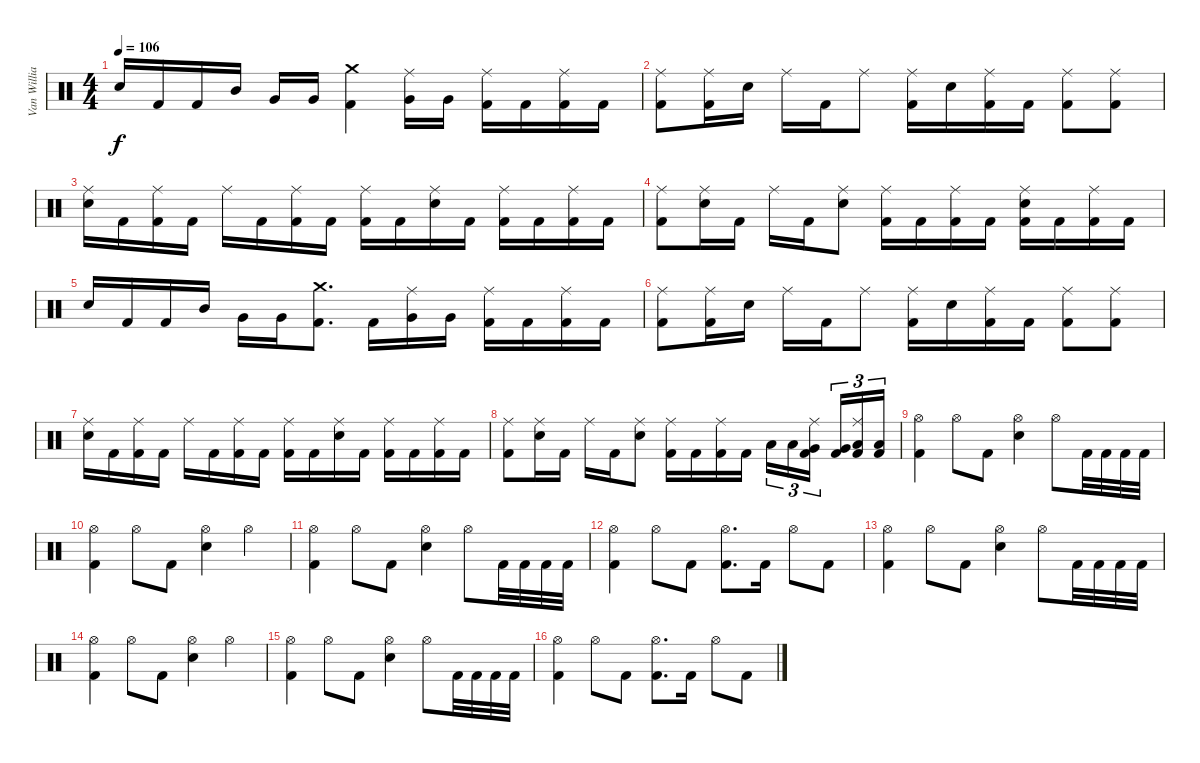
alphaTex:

\track ("Van Williams" "Van Willia") {instrument percussion}
\staff {score}
\articulation defaults
\ts (4 4)
\tempo 106
\clef neutral
\ks c "Electric Snare (hit)".16{dy f} "Kick (hit) 2".16 "Kick (hit) 2".16 "Mid Tom (hit)".16 "Very Low Tom (hit)".16 "Very Low Tom (hit)".16
("Kick (hit) 2" "Crash medium (hit)").4 ("Very Low Tom (hit)" "Ride (middle)").16 "Very Low Tom (hit)".16 ("Kick (hit) 2" "Ride (middle)").16 "Kick (hit) 2".16 ("Kick (hit) 2" "Ride (middle)").16 "Kick (hit) 2".16 |
("Kick (hit) 2" "Ride (middle)").8 ("Kick (hit) 2" "Ride (middle)").16 "Electric Snare (hit)".16 "Ride (middle)".16 "Kick (hit) 2".16 "Ride (middle)".8 ("Kick (hit) 2" "Ride (middle)").16 "Electric Snare (hit)".16 ("Kick (hit) 2" "Ride (middle)").16 "Kick (hit) 2".16 ("Kick (hit) 2" "Ride (middle)").8 ("Kick (hit) 2" "Ride (middle)").8 |
("Electric Snare (hit)" "Ride (middle)").16 "Kick (hit) 2".16 ("Kick (hit) 2" "Ride (middle)").16 "Kick (hit) 2".16 "Ride (middle)".16 "Kick (hit) 2".16 ("Kick (hit) 2" "Ride (middle)").16 "Kick (hit) 2".16 ("Kick (hit) 2" "Ride (middle)").16 "Kick (hit) 2".16 ("Electric Snare (hit)" "Ride (middle)").16 "Kick (hit) 2".16 ("Kick (hit) 2" "Ride (middle)").16 "Kick (hit) 2".16 ("Kick (hit) 2" "Ride (middle)").16 "Kick (hit) 2".16 |
("Kick (hit) 2" "Ride (middle)").8 ("Electric Snare (hit)" "Ride (middle)").16 "Kick (hit) 2".16 "Ride (middle)".16 "Kick (hit) 2".16 ("Electric Snare (hit)" "Ride (middle)").8 ("Kick (hit) 2" "Ride (middle)").16 "Kick (hit) 2".16 ("Kick (hit) 2" "Ride (middle)").16 "Kick (hit) 2".16 ("Kick (hit) 2" "Electric Snare (hit)" "Ride (middle)").16 "Kick (hit) 2".16 ("Kick (hit) 2" "Ride (middle)").16 "Kick (hit) 2".16 |
"Electric Snare (hit)".16 "Kick (hit) 2".16 "Kick (hit) 2".16 "Mid Tom (hit)".16 "Very Low Tom (hit)".16 "Very Low Tom (hit)".16 ("Kick (hit) 2" "Crash medium (hit)").8{d} "Kick (hit) 2".16 ("Very Low Tom (hit)" "Ride (middle)").16 "Very Low Tom (hit)".16 ("Kick (hit) 2" "Ride (middle)").16 "Kick (hit) 2".16 ("Kick (hit) 2" "Ride (middle)").16 "Kick (hit) 2".16 |
("Kick (hit) 2" "Ride (middle)").8 ("Kick (hit) 2" "Ride (middle)").16 "Electric Snare (hit)".16 "Ride (middle)".16 "Kick (hit) 2".16 "Ride (middle)".8 ("Kick (hit) 2" "Ride (middle)").16 "Electric Snare (hit)".16 ("Kick (hit) 2" "Ride (middle)").16 "Kick (hit) 2".16 ("Kick (hit) 2" "Ride (middle)").8 ("Kick (hit) 2" "Ride (middle)").8 |
("Electric Snare (hit)" "Ride (middle)").16 "Kick (hit) 2".16 ("Kick (hit) 2" "Ride (middle)").16 "Kick (hit) 2".16 "Ride (middle)".16 "Kick (hit) 2".16 ("Kick (hit) 2" "Ride (middle)").16 "Kick (hit) 2".16 ("Kick (hit) 2" "Ride (middle)").16 "Kick (hit) 2".16 ("Electric Snare (hit)" "Ride (middle)").16 "Kick (hit) 2".16 ("Kick (hit) 2" "Ride (middle)").16 "Kick (hit) 2".16 ("Kick (hit) 2" "Ride (middle)").16 "Kick (hit) 2".16 |
("Kick (hit) 2" "Ride (middle)").8 ("Electric Snare (hit)" "Ride (middle)").16 "Kick (hit) 2".16 "Ride (middle)".16 "Kick (hit) 2".16 ("Electric Snare (hit)" "Ride (middle)").8 ("Kick (hit) 2" "Ride (middle)").16 "Kick (hit) 2".16 ("Kick (hit) 2" "Ride (middle)").16 "Kick (hit) 2".16 "Low Tom (hit)".16{tu (3 2)} "Low Tom (hit)".16{tu (3 2)} ("Kick (hit) 2" "Very Low Tom (hit)" "Ride (middle)").16{tu (3 2)} ("Kick (hit) 2" "Very Low Tom (hit)").16{tu (3 2)} ("Kick (hit) 2" "Low Floor Tom (hit)" "Ride (middle)").16{tu (3 2)} ("Kick (hit) 2" "Low Floor Tom (hit)").16{tu (3 2)} |
("Hi-Hat (open)" "Kick (hit) 2").4 "Hi-Hat (open)".8 "Kick (hit) 2".8 ("Electric Snare (hit)" "Hi-Hat (open)").4 "Hi-Hat (open)".8 "Kick (hit) 2".32 "Kick (hit) 2".32 "Kick (hit) 2".32 "Kick (hit) 2".32 |
("Kick (hit) 2" "Hi-Hat (open)").4 "Hi-Hat (open)".8 "Kick (hit) 2".8 ("Electric Snare (hit)" "Hi-Hat (open)").4 "Hi-Hat (open)".4 |
("Kick (hit) 2" "Hi-Hat (open)").4 "Hi-Hat (open)".8 "Kick (hit) 2".8 ("Electric Snare (hit)" "Hi-Hat (open)").4 "Hi-Hat (open)".8 "Kick (hit) 2".32 "Kick (hit) 2".32 "Kick (hit) 2".32 "Kick (hit) 2".32 |
("Kick (hit) 2" "Hi-Hat (open)").4 "Hi-Hat (open)".8 "Kick (hit) 2".8 ("Kick (hit) 2" "Hi-Hat (open)").8{d} "Kick (hit) 2".16 "Hi-Hat (open)".8 "Kick (hit) 2".8 |
("Hi-Hat (open)" "Kick (hit) 2").4 "Hi-Hat (open)".8 "Kick (hit) 2".8 ("Electric Snare (hit)" "Hi-Hat (open)").4 "Hi-Hat (open)".8 "Kick (hit) 2".32 "Kick (hit) 2".32 "Kick (hit) 2".32 "Kick (hit) 2".32 |
("Kick (hit) 2" "Hi-Hat (open)").4 "Hi-Hat (open)".8 "Kick (hit) 2".8 ("Electric Snare (hit)" "Hi-Hat (open)").4 "Hi-Hat (open)".4 |
("Kick (hit) 2" "Hi-Hat (open)").4 "Hi-Hat (open)".8 "Kick (hit) 2".8 ("Electric Snare (hit)" "Hi-Hat (open)").4 "Hi-Hat (open)".8 "Kick (hit) 2".32 "Kick (hit) 2".32 "Kick (hit) 2".32 "Kick (hit) 2".32 |
("Kick (hit) 2" "Hi-Hat (open)").4 "Hi-Hat (open)".8 "Kick (hit) 2".8 ("Kick (hit) 2" "Hi-Hat (open)").8{d} "Kick (hit) 2".16 "Hi-Hat (open)".8 "Kick (hit) 2".8
